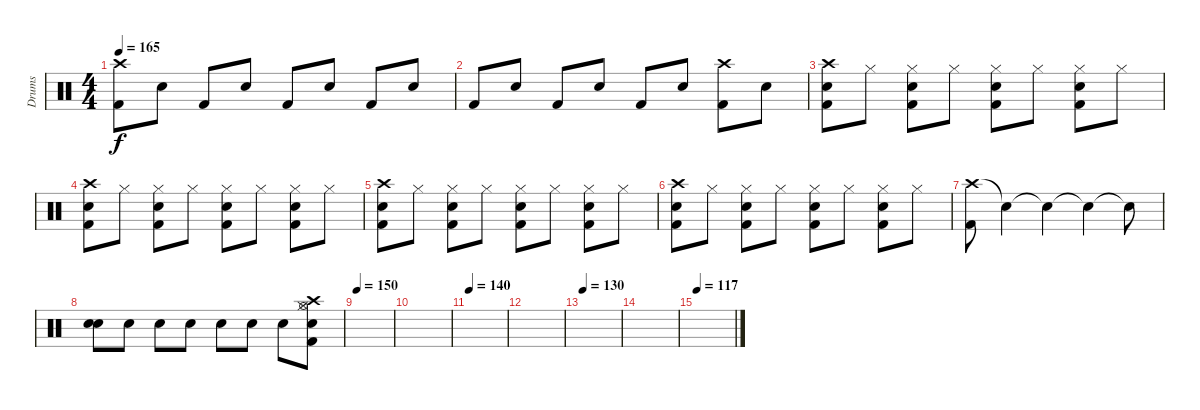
\track ("Drums" "Drums") {instrument percussion}
\staff {score}
\articulation defaults
\ts (4 4)
\tempo 165
\clef neutral
\ks c
("Crash high (hit)" "Kick (hit) 2").8{dy f} "Snare (hit)"{x}.8 "Kick (hit) 2".8 "Snare (hit)"{x}.8 "Kick (hit) 2".8 "Snare (hit)"{x}.8 "Kick (hit) 2".8 "Snare (hit)"{x}.8 |
"Kick (hit) 2".8 "Snare (hit)"{x}.8 "Kick (hit) 2".8 "Snare (hit)"{x}.8 "Kick (hit) 2".8 "Snare (hit)"{x}.8 ("Crash high (hit)" "Kick (hit) 2").8 "Snare (hit)"{x}.8 |
("Crash high (hit)" "Electric Snare (hit)" "Kick (hit) 2").8 "Hi-Hat (closed)".8 ("Hi-Hat (closed)" "Kick (hit) 2" "Electric Snare (hit)").8 "Hi-Hat (closed)".8 ("Hi-Hat (closed)" "Kick (hit) 2" "Electric Snare (hit)").8 "Hi-Hat (closed)".8 ("Hi-Hat (closed)" "Kick (hit) 2" "Electric Snare (hit)").8 "Hi-Hat (closed)".8 |
("Crash high (hit)" "Electric Snare (hit)" "Kick (hit) 2").8 "Hi-Hat (closed)".8 ("Hi-Hat (closed)" "Kick (hit) 2" "Electric Snare (hit)").8 "Hi-Hat (closed)".8 ("Hi-Hat (closed)" "Electric Snare (hit)" "Kick (hit) 2").8 "Hi-Hat (closed)".8 ("Hi-Hat (closed)" "Kick (hit) 2" "Electric Snare (hit)").8 "Hi-Hat (closed)".8 |
("Crash high (hit)" "Electric Snare (hit)" "Kick (hit) 2").8 "Hi-Hat (closed)".8 ("Hi-Hat (closed)" "Kick (hit) 2" "Electric Snare (hit)").8 "Hi-Hat (closed)".8 ("Hi-Hat (closed)" "Electric Snare (hit)" "Kick (hit) 2").8 "Hi-Hat (closed)".8 ("Hi-Hat (closed)" "Kick (hit) 2" "Electric Snare (hit)").8 "Hi-Hat (closed)".8 |
("Crash high (hit)" "Electric Snare (hit)" "Kick (hit) 2").8 "Hi-Hat (closed)".8 ("Hi-Hat (closed)" "Kick (hit) 2" "Electric Snare (hit)").8 "Hi-Hat (closed)".8 ("Hi-Hat (closed)" "Electric Snare (hit)" "Kick (hit) 2").8 "Hi-Hat (closed)".8 ("Hi-Hat (closed)" "Kick (hit) 2" "Electric Snare (hit)").8 "Hi-Hat (closed)".8 |
("Crash high (hit)" "Kick (hit) 2").8 "Snare (hit)"{t}.4 "Snare (hit)"{t}.4 "Snare (hit)"{t}.4 "Snare (hit)"{t}.8 |
("Snare (hit)"{x} "Snare (hit)"{x}).8 "Snare (hit)"{x}.8 "Snare (hit)"{x}.8 "Snare (hit)"{x}.8 "Snare (hit)"{x}.8 "Snare (hit)"{x}.8 "Snare (hit)"{x}.8 ("Crash high (hit)" "Kick (hit) 2" "Electric Snare (hit)" "Hi-Hat (closed)" "Hi-Hat (open)").8 |
\tempo 150
|
|
\tempo 140
|
|
\tempo 130
|
|
\tempo 117
